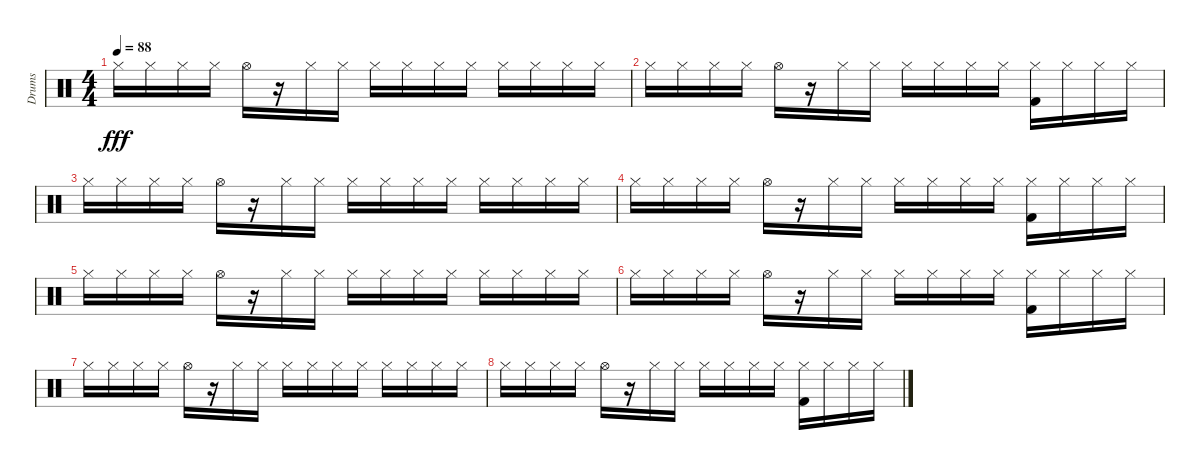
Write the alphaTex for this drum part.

\track ("Drums" "Drums") {instrument percussion}
\staff {score}
\articulation defaults
\ts (4 4)
\tempo 88
\clef neutral
\ks c "Hi-Hat (closed)".16{dy fff} "Hi-Hat (closed)".16 "Hi-Hat (closed)".16 "Hi-Hat (closed)".16 "Hi-Hat (open)".16
r.16 "Hi-Hat (closed)".16 "Hi-Hat (closed)".16 "Hi-Hat (closed)".16 "Hi-Hat (closed)".16 "Hi-Hat (closed)".16 "Hi-Hat (closed)".16 "Hi-Hat (closed)".16 "Hi-Hat (closed)".16 "Hi-Hat (closed)".16 "Hi-Hat (closed)".16 |
"Hi-Hat (closed)".16 "Hi-Hat (closed)".16 "Hi-Hat (closed)".16 "Hi-Hat (closed)".16 "Hi-Hat (open)".16 r.16 "Hi-Hat (closed)".16 "Hi-Hat (closed)".16 "Hi-Hat (closed)".16 "Hi-Hat (closed)".16 "Hi-Hat (closed)".16 "Hi-Hat (closed)".16 ("Kick (hit) 2" "Hi-Hat (closed)").16 "Hi-Hat (closed)".16 "Hi-Hat (closed)".16 "Hi-Hat (closed)".16 |
"Hi-Hat (closed)".16 "Hi-Hat (closed)".16 "Hi-Hat (closed)".16 "Hi-Hat (closed)".16 "Hi-Hat (open)".16 r.16 "Hi-Hat (closed)".16 "Hi-Hat (closed)".16 "Hi-Hat (closed)".16 "Hi-Hat (closed)".16 "Hi-Hat (closed)".16 "Hi-Hat (closed)".16 "Hi-Hat (closed)".16 "Hi-Hat (closed)".16 "Hi-Hat (closed)".16 "Hi-Hat (closed)".16 |
"Hi-Hat (closed)".16 "Hi-Hat (closed)".16 "Hi-Hat (closed)".16 "Hi-Hat (closed)".16 "Hi-Hat (open)".16 r.16 "Hi-Hat (closed)".16 "Hi-Hat (closed)".16 "Hi-Hat (closed)".16 "Hi-Hat (closed)".16 "Hi-Hat (closed)".16 "Hi-Hat (closed)".16 ("Kick (hit) 2" "Hi-Hat (closed)").16 "Hi-Hat (closed)".16 "Hi-Hat (closed)".16 "Hi-Hat (closed)".16 |
"Hi-Hat (closed)".16 "Hi-Hat (closed)".16 "Hi-Hat (closed)".16 "Hi-Hat (closed)".16 "Hi-Hat (open)".16 r.16 "Hi-Hat (closed)".16 "Hi-Hat (closed)".16 "Hi-Hat (closed)".16 "Hi-Hat (closed)".16 "Hi-Hat (closed)".16 "Hi-Hat (closed)".16 "Hi-Hat (closed)".16 "Hi-Hat (closed)".16 "Hi-Hat (closed)".16 "Hi-Hat (closed)".16 |
"Hi-Hat (closed)".16{volume 16} "Hi-Hat (closed)".16{volume 16} "Hi-Hat (closed)".16{volume 15} "Hi-Hat (closed)".16{volume 15} "Hi-Hat (open)".16{volume 15} r.16 "Hi-Hat (closed)".16{volume 14} "Hi-Hat (closed)".16{volume 14} "Hi-Hat (closed)".16{volume 13} "Hi-Hat (closed)".16{volume 13} "Hi-Hat (closed)".16{volume 13} "Hi-Hat (closed)".16{volume 12} ("Kick (hit) 2" "Hi-Hat (closed)").16{volume 12} "Hi-Hat (closed)".16{volume 12} "Hi-Hat (closed)".16{volume 11} "Hi-Hat (closed)".16{volume 11} |
"Hi-Hat (closed)".16{volume 11} "Hi-Hat (closed)".16{volume 10} "Hi-Hat (closed)".16{volume 10} "Hi-Hat (closed)".16{volume 10} "Hi-Hat (open)".16{volume 9} r.16 "Hi-Hat (closed)".16{volume 9} "Hi-Hat (closed)".16{volume 8} "Hi-Hat (closed)".16{volume 8} "Hi-Hat (closed)".16{volume 8} "Hi-Hat (closed)".16{volume 7} "Hi-Hat (closed)".16{volume 7} "Hi-Hat (closed)".16{volume 7} "Hi-Hat (closed)".16{volume 6} "Hi-Hat (closed)".16{volume 6} "Hi-Hat (closed)".16{volume 6} |
"Hi-Hat (closed)".16{volume 5} "Hi-Hat (closed)".16{volume 5} "Hi-Hat (closed)".16{volume 5} "Hi-Hat (closed)".16{volume 4} "Hi-Hat (open)".16{volume 4} r.16 "Hi-Hat (closed)".16{volume 3} "Hi-Hat (closed)".16{volume 3} "Hi-Hat (closed)".16{volume 3} "Hi-Hat (closed)".16{volume 2} "Hi-Hat (closed)".16{volume 2} "Hi-Hat (closed)".16{volume 2} ("Kick (hit) 2" "Hi-Hat (closed)").16{volume 1} "Hi-Hat (closed)".16{volume 1} "Hi-Hat (closed)".16{volume 1} "Hi-Hat (closed)".16{volume 0}
